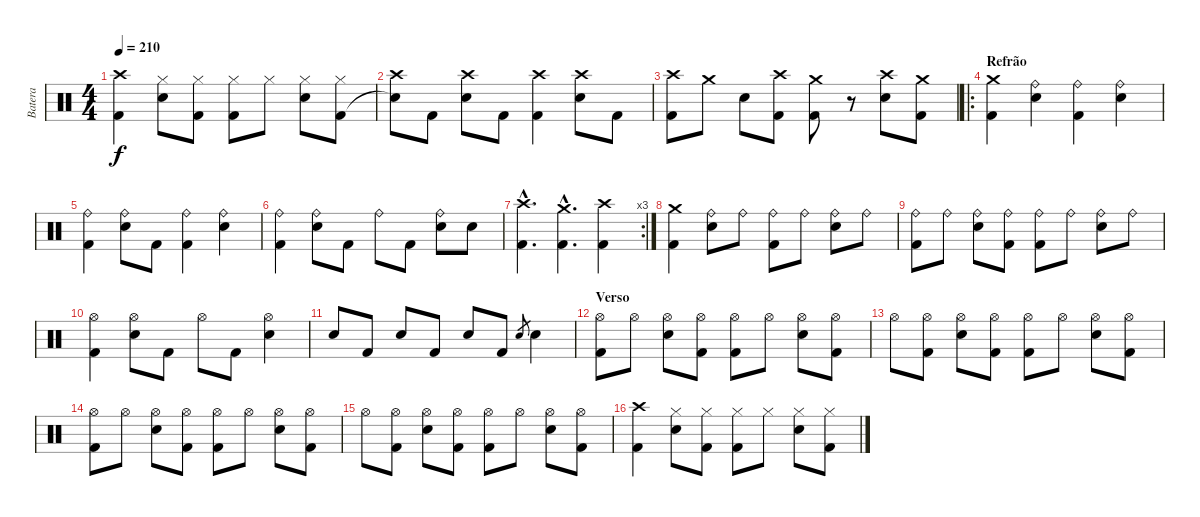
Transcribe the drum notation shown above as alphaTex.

\track ("Batera" "Batera") {instrument percussion}
\staff {score}
\articulation defaults
\ts (4 4)
\tempo 210
\clef neutral
\ks c
("Crash high (hit)" "Kick (hit) 2").4{dy f} ("Hi-Hat (closed)" "Electric Snare (hit)").8 ("Hi-Hat (closed)" "Kick (hit) 2").8 ("Hi-Hat (closed)" "Kick (hit) 2").8 "Hi-Hat (closed)".8 ("Hi-Hat (closed)" "Electric Snare (hit)").8 ("Hi-Hat (closed)" "Kick (hit) 2").8 |
("Crash high (hit)" "Snare (hit)"{t}).8 "Kick (hit) 2".8 ("Crash high (hit)" "Electric Snare (hit)").8 "Kick (hit) 2".8 ("Crash high (hit)" "Kick (hit) 2").4 ("Crash high (hit)" "Electric Snare (hit)").8 "Kick (hit) 2".8 |
("Crash high (hit)" "Kick (hit) 2").8 "Crash medium (hit)".8 "Electric Snare (hit)".8 ("Crash high (hit)" "Kick (hit) 2").8 ("Crash medium (hit)" "Kick (hit) 2").8 r.8 ("Crash high (hit)" "Electric Snare (hit)").8 ("Crash medium (hit)" "Kick (hit) 2").8 |
\ro
\section ("" "Refrão")
("Crash medium (hit)" "Kick (hit) 2").4 ("Ride (bell)" "Electric Snare (hit)").4 ("Ride (bell)" "Kick (hit) 2").4 ("Ride (bell)" "Electric Snare (hit)").4 |
("Ride (bell)" "Kick (hit) 2").4 ("Ride (bell)" "Electric Snare (hit)").8 "Kick (hit) 2".8 ("Ride (bell)" "Kick (hit) 2").4 ("Ride (bell)" "Electric Snare (hit)").4 |
("Ride (bell)" "Kick (hit) 2").4 ("Ride (bell)" "Electric Snare (hit)").8 "Kick (hit) 2".8 "Ride (bell)".8 "Kick (hit) 2".8 ("Ride (bell)" "Electric Snare (hit)").8 "Electric Snare (hit)".8 |
\rc 3
("Crash high (hit)"{hac} "Kick (hit) 2"{hac}).4{d} ("Crash medium (hit)"{hac} "Kick (hit) 2"{hac}).4{d} ("Crash high (hit)" "Kick (hit) 2").4 |
("Crash medium (hit)" "Kick (hit) 2").4 ("Ride (bell)" "Electric Snare (hit)").8 "Ride (bell)".8 ("Ride (bell)" "Kick (hit) 2").8 "Ride (bell)".8 ("Ride (bell)" "Electric Snare (hit)").8 "Ride (bell)".8 |
("Ride (bell)" "Kick (hit) 2").8 "Ride (bell)".8 ("Ride (bell)" "Electric Snare (hit)").8 ("Ride (bell)" "Kick (hit) 2").8 ("Ride (bell)" "Kick (hit) 2").8 "Ride (bell)".8 ("Ride (bell)" "Electric Snare (hit)").8 "Ride (bell)".8 |
("Hi-Hat (open)" "Kick (hit) 2").4 ("Hi-Hat (open)" "Electric Snare (hit)").8 "Kick (hit) 2".8 "Hi-Hat (open)".8 "Kick (hit) 2".8 ("Hi-Hat (open)" "Electric Snare (hit)").4 |
"Electric Snare (hit)".8 "Kick (hit) 2".8 "Electric Snare (hit)".8 "Kick (hit) 2".8 "Electric Snare (hit)".8 "Kick (hit) 2".8 "Electric Snare (hit)".8{gr} "Electric Snare (hit)".4 |
\section ("" "Verso")
("Hi-Hat (open)" "Kick (hit) 2").8 "Hi-Hat (open)".8 ("Hi-Hat (open)" "Electric Snare (hit)").8 ("Hi-Hat (open)" "Kick (hit) 2").8 ("Hi-Hat (open)" "Kick (hit) 2").8 "Hi-Hat (open)".8 ("Hi-Hat (open)" "Electric Snare (hit)").8 ("Hi-Hat (open)" "Kick (hit) 2").8 |
"Hi-Hat (open)".8 ("Hi-Hat (open)" "Kick (hit) 2").8 ("Hi-Hat (open)" "Electric Snare (hit)").8 ("Hi-Hat (open)" "Kick (hit) 2").8 ("Hi-Hat (open)" "Kick (hit) 2").8 "Hi-Hat (open)".8 ("Hi-Hat (open)" "Electric Snare (hit)").8 ("Hi-Hat (open)" "Kick (hit) 2").8 |
("Hi-Hat (open)" "Kick (hit) 2").8 "Hi-Hat (open)".8 ("Hi-Hat (open)" "Electric Snare (hit)").8 ("Hi-Hat (open)" "Kick (hit) 2").8 ("Hi-Hat (open)" "Kick (hit) 2").8 "Hi-Hat (open)".8 ("Hi-Hat (open)" "Electric Snare (hit)").8 ("Hi-Hat (open)" "Kick (hit) 2").8 |
"Hi-Hat (open)".8 ("Hi-Hat (open)" "Kick (hit) 2").8 ("Hi-Hat (open)" "Electric Snare (hit)").8 ("Hi-Hat (open)" "Kick (hit) 2").8 ("Hi-Hat (open)" "Kick (hit) 2").8 "Hi-Hat (open)".8 ("Hi-Hat (open)" "Electric Snare (hit)").8 ("Hi-Hat (open)" "Kick (hit) 2").8 |
("Crash high (hit)" "Kick (hit) 2").4 ("Hi-Hat (closed)" "Electric Snare (hit)").8 ("Hi-Hat (closed)" "Kick (hit) 2").8 ("Hi-Hat (closed)" "Kick (hit) 2").8 "Hi-Hat (closed)".8 ("Hi-Hat (closed)" "Electric Snare (hit)").8 ("Hi-Hat (closed)" "Kick (hit) 2").8
